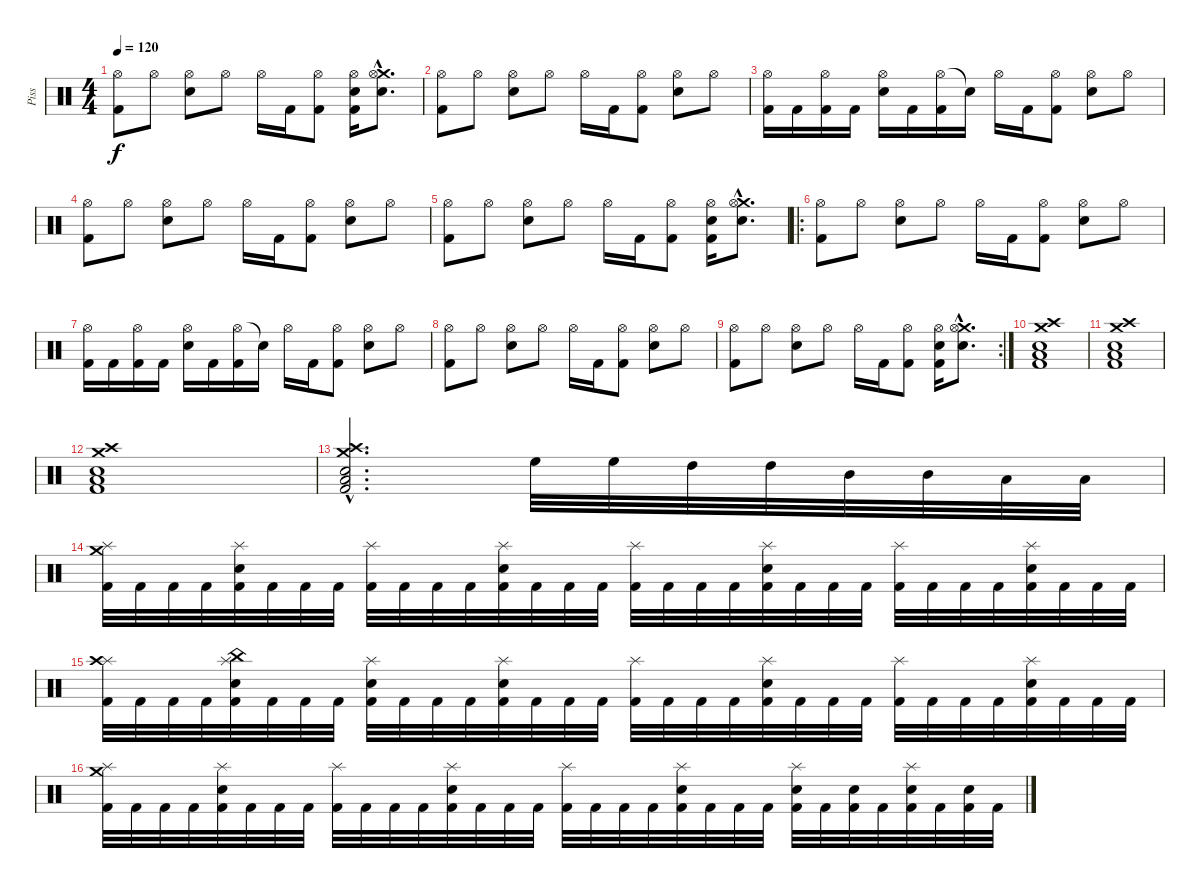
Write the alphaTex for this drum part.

\track ("Piss" "Piss") {instrument percussion}
\staff {score}
\articulation defaults
\ts (4 4)
\tempo 120
\clef neutral
\ks c
("Hi-Hat (open)" "Kick (hit) 2").8{dy f} "Hi-Hat (open)".8 ("Hi-Hat (open)" "Electric Snare (hit)").8 "Hi-Hat (open)".8 "Hi-Hat (open)".16 "Kick (hit) 2".16 ("Hi-Hat (open)" "Kick (hit) 2").8 ("Hi-Hat (open)" "Electric Snare (hit)" "Kick (hit) 2").16 ("Crash medium (hit)"{hac} "Hi-Hat (open)"{hac} "Electric Snare (hit)"{hac}).8{d} |
("Hi-Hat (open)" "Kick (hit) 2").8 "Hi-Hat (open)".8 ("Hi-Hat (open)" "Electric Snare (hit)").8 "Hi-Hat (open)".8 "Hi-Hat (open)".16 "Kick (hit) 2".16 ("Hi-Hat (open)" "Kick (hit) 2").8 ("Hi-Hat (open)" "Electric Snare (hit)").8 "Hi-Hat (open)".8 |
("Hi-Hat (open)" "Kick (hit) 2").16 "Kick (hit) 2".16 ("Hi-Hat (open)" "Kick (hit) 2").16 "Kick (hit) 2".16 ("Hi-Hat (open)" "Electric Snare (hit)").16 "Kick (hit) 2".16 ("Hi-Hat (open)" "Kick (hit) 2").16 "Snare (hit)"{t}.16 "Hi-Hat (open)".16 "Kick (hit) 2".16 ("Hi-Hat (open)" "Kick (hit) 2").8 ("Hi-Hat (open)" "Electric Snare (hit)").8 "Hi-Hat (open)".8 |
("Hi-Hat (open)" "Kick (hit) 2").8 "Hi-Hat (open)".8 ("Hi-Hat (open)" "Electric Snare (hit)").8 "Hi-Hat (open)".8 "Hi-Hat (open)".16 "Kick (hit) 2".16 ("Hi-Hat (open)" "Kick (hit) 2").8 ("Hi-Hat (open)" "Electric Snare (hit)").8 "Hi-Hat (open)".8 |
("Hi-Hat (open)" "Kick (hit) 2").8 "Hi-Hat (open)".8 ("Hi-Hat (open)" "Electric Snare (hit)").8 "Hi-Hat (open)".8 "Hi-Hat (open)".16 "Kick (hit) 2".16 ("Hi-Hat (open)" "Kick (hit) 2").8 ("Hi-Hat (open)" "Electric Snare (hit)" "Kick (hit) 2").16 ("Crash medium (hit)"{hac} "Hi-Hat (open)"{hac} "Electric Snare (hit)"{hac}).8{d} |
\ro
("Hi-Hat (open)" "Kick (hit) 2").8 "Hi-Hat (open)".8 ("Hi-Hat (open)" "Electric Snare (hit)").8 "Hi-Hat (open)".8 "Hi-Hat (open)".16 "Kick (hit) 2".16 ("Hi-Hat (open)" "Kick (hit) 2").8 ("Hi-Hat (open)" "Electric Snare (hit)").8 "Hi-Hat (open)".8 |
("Hi-Hat (open)" "Kick (hit) 2").16 "Kick (hit) 2".16 ("Hi-Hat (open)" "Kick (hit) 2").16 "Kick (hit) 2".16 ("Hi-Hat (open)" "Electric Snare (hit)").16 "Kick (hit) 2".16 ("Hi-Hat (open)" "Kick (hit) 2").16 "Snare (hit)"{t}.16 "Hi-Hat (open)".16 "Kick (hit) 2".16 ("Hi-Hat (open)" "Kick (hit) 2").8 ("Hi-Hat (open)" "Electric Snare (hit)").8 "Hi-Hat (open)".8 |
("Hi-Hat (open)" "Kick (hit) 2").8 "Hi-Hat (open)".8 ("Hi-Hat (open)" "Electric Snare (hit)").8 "Hi-Hat (open)".8 "Hi-Hat (open)".16 "Kick (hit) 2".16 ("Hi-Hat (open)" "Kick (hit) 2").8 ("Hi-Hat (open)" "Electric Snare (hit)").8 "Hi-Hat (open)".8 |
\rc 2
("Hi-Hat (open)" "Kick (hit) 2").8 "Hi-Hat (open)".8 ("Hi-Hat (open)" "Electric Snare (hit)").8 "Hi-Hat (open)".8 "Hi-Hat (open)".16 "Kick (hit) 2".16 ("Hi-Hat (open)" "Kick (hit) 2").8 ("Hi-Hat (open)" "Electric Snare (hit)" "Kick (hit) 2").16 ("Crash medium (hit)"{hac} "Hi-Hat (open)"{hac} "Electric Snare (hit)"{hac}).8{d} |
("Electric Snare (hit)" "Crash high (hit)" "Crash medium (hit)" "Low Tom (hit)" "Kick (hit) 2").1 |
("Electric Snare (hit)" "Crash high (hit)" "Crash medium (hit)" "Low Tom (hit)" "Kick (hit) 2").1 |
("Electric Snare (hit)" "Crash high (hit)" "Crash medium (hit)" "Low Tom (hit)" "Kick (hit) 2").1 |
("Electric Snare (hit)"{hac} "Crash high (hit)"{hac} "Crash medium (hit)"{hac} "Low Tom (hit)"{hac} "Kick (hit) 2"{hac}).2{d} "High Floor Tom (hit)".32 "High Floor Tom (hit)".32 "High Tom (hit)".32 "High Tom (hit)".32 "Mid Tom (hit)".32 "Mid Tom (hit)".32 "Low Tom (hit)".32 "Low Tom (hit)".32 |
("Splash (hit)" "Crash medium (hit)" "Kick (hit) 2").32 "Kick (hit) 2".32 "Kick (hit) 2".32 "Kick (hit) 2".32 ("Splash (hit)" "Electric Snare (hit)" "Kick (hit) 2").32 "Kick (hit) 2".32 "Kick (hit) 2".32 "Kick (hit) 2".32 ("Splash (hit)" "Kick (hit) 2").32 "Kick (hit) 2".32 "Kick (hit) 2".32 "Kick (hit) 2".32 ("Splash (hit)" "Electric Snare (hit)" "Kick (hit) 2").32 "Kick (hit) 2".32 "Kick (hit) 2".32 "Kick (hit) 2".32 ("Splash (hit)" "Kick (hit) 2").32 "Kick (hit) 2".32 "Kick (hit) 2".32 "Kick (hit) 2".32 ("Splash (hit)" "Electric Snare (hit)" "Kick (hit) 2").32 "Kick (hit) 2".32 "Kick (hit) 2".32 "Kick (hit) 2".32 ("Splash (hit)" "Kick (hit) 2").32 "Kick (hit) 2".32 "Kick (hit) 2".32 "Kick (hit) 2".32 ("Splash (hit)" "Electric Snare (hit)" "Kick (hit) 2").32 "Kick (hit) 2".32 "Kick (hit) 2".32 "Kick (hit) 2".32 |
("Splash (hit)" "Crash high (hit)" "Kick (hit) 2").32 "Kick (hit) 2".32 "Kick (hit) 2".32 "Kick (hit) 2".32 ("Splash (hit)" "China (hit)" "Electric Snare (hit)" "Kick (hit) 2").32 "Kick (hit) 2".32 "Kick (hit) 2".32 "Kick (hit) 2".32 ("Splash (hit)" "Electric Snare (hit)" "Kick (hit) 2").32 "Kick (hit) 2".32 "Kick (hit) 2".32 "Kick (hit) 2".32 ("Splash (hit)" "Electric Snare (hit)" "Kick (hit) 2").32 "Kick (hit) 2".32 "Kick (hit) 2".32 "Kick (hit) 2".32 ("Splash (hit)" "Kick (hit) 2").32 "Kick (hit) 2".32 "Kick (hit) 2".32 "Kick (hit) 2".32 ("Splash (hit)" "Electric Snare (hit)" "Kick (hit) 2").32 "Kick (hit) 2".32 "Kick (hit) 2".32 "Kick (hit) 2".32 ("Splash (hit)" "Kick (hit) 2").32 "Kick (hit) 2".32 "Kick (hit) 2".32 "Kick (hit) 2".32 ("Splash (hit)" "Electric Snare (hit)" "Kick (hit) 2").32 "Kick (hit) 2".32 "Kick (hit) 2".32 "Kick (hit) 2".32 |
("Splash (hit)" "Crash medium (hit)" "Kick (hit) 2").32 "Kick (hit) 2".32 "Kick (hit) 2".32 "Kick (hit) 2".32 ("Splash (hit)" "Electric Snare (hit)" "Kick (hit) 2").32 "Kick (hit) 2".32 "Kick (hit) 2".32 "Kick (hit) 2".32 ("Splash (hit)" "Kick (hit) 2").32 "Kick (hit) 2".32 "Kick (hit) 2".32 "Kick (hit) 2".32 ("Splash (hit)" "Electric Snare (hit)" "Kick (hit) 2").32 "Kick (hit) 2".32 "Kick (hit) 2".32 "Kick (hit) 2".32 ("Splash (hit)" "Kick (hit) 2").32 "Kick (hit) 2".32 "Kick (hit) 2".32 "Kick (hit) 2".32 ("Splash (hit)" "Electric Snare (hit)" "Kick (hit) 2").32 "Kick (hit) 2".32 "Kick (hit) 2".32 "Kick (hit) 2".32 ("Splash (hit)" "Electric Snare (hit)" "Kick (hit) 2").32 "Kick (hit) 2".32 ("Electric Snare (hit)" "Kick (hit) 2").32 "Kick (hit) 2".32 ("Splash (hit)" "Electric Snare (hit)" "Kick (hit) 2").32 "Kick (hit) 2".32 ("Electric Snare (hit)" "Kick (hit) 2").32 "Kick (hit) 2".32
